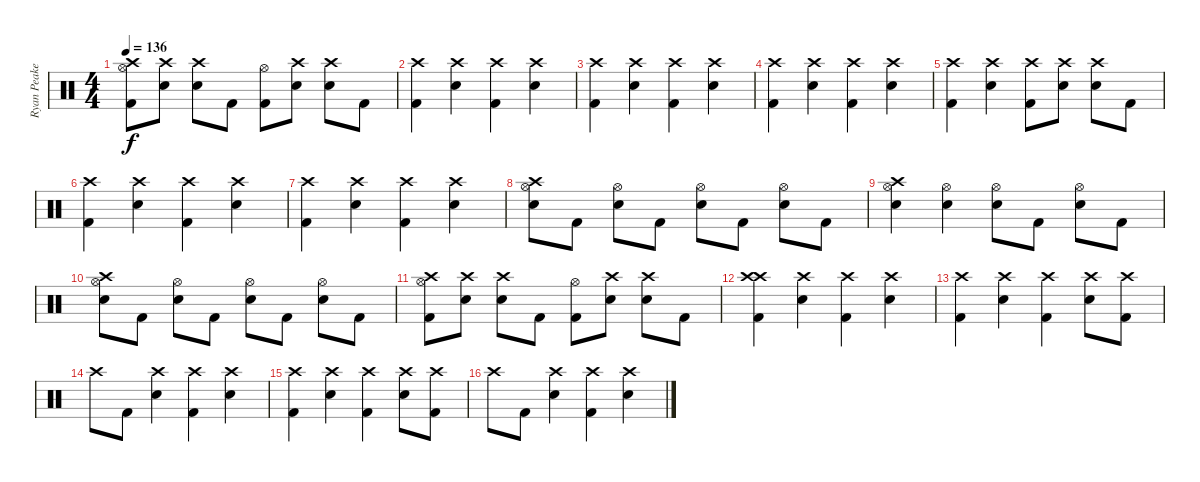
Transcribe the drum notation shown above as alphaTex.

\track ("Ryan Peake" "Ryan Peake") {instrument percussion}
\staff {score}
\articulation defaults
\ts (4 4)
\tempo 136
\clef neutral
\ks c
("Kick (hit) 2" "Hi-Hat (open)" "Crash high (hit)").8{dy f} ("Snare (hit) 2" "Crash high (hit)").8 ("Snare (hit) 2" "Crash high (hit)").8 "Kick (hit) 2".8 ("Kick (hit) 2" "Hi-Hat (open)").8 ("Snare (hit) 2" "Crash high (hit)").8 ("Snare (hit) 2" "Crash high (hit)").8 "Kick (hit) 2".8 |
("Kick (hit) 2" "Crash high (hit)").4 ("Snare (hit) 2" "Crash high (hit)").4 ("Kick (hit) 2" "Crash high (hit)").4 ("Snare (hit) 2" "Crash high (hit)").4 |
("Kick (hit) 2" "Crash high (hit)").4 ("Snare (hit) 2" "Crash high (hit)").4 ("Kick (hit) 2" "Crash high (hit)").4 ("Snare (hit) 2" "Crash high (hit)").4 |
("Kick (hit) 2" "Crash high (hit)").4 ("Snare (hit) 2" "Crash high (hit)").4 ("Kick (hit) 2" "Crash high (hit)").4 ("Snare (hit) 2" "Crash high (hit)").4 |
("Kick (hit) 2" "Crash high (hit)").4 ("Snare (hit) 2" "Crash high (hit)").4 ("Kick (hit) 2" "Crash high (hit)").8 ("Snare (hit) 2" "Crash high (hit)").8 ("Snare (hit) 2" "Crash high (hit)").8 "Kick (hit) 2".8 |
("Kick (hit) 2" "Crash high (hit)").4 ("Snare (hit) 2" "Crash high (hit)").4 ("Kick (hit) 2" "Crash high (hit)").4 ("Snare (hit) 2" "Crash high (hit)").4 |
("Kick (hit) 2" "Crash high (hit)").4 ("Snare (hit) 2" "Crash high (hit)").4 ("Kick (hit) 2" "Crash high (hit)").4 ("Snare (hit) 2" "Crash high (hit)").4 |
("Snare (hit) 2" "Hi-Hat (open)" "Crash high (hit)").8 "Kick (hit) 2".8 ("Snare (hit) 2" "Hi-Hat (open)").8 "Kick (hit) 2".8 ("Snare (hit) 2" "Hi-Hat (open)").8 "Kick (hit) 2".8 ("Snare (hit) 2" "Hi-Hat (open)").8 "Kick (hit) 2".8 |
("Snare (hit) 2" "Hi-Hat (open)" "Crash high (hit)").4 ("Snare (hit) 2" "Hi-Hat (open)").4 ("Snare (hit) 2" "Hi-Hat (open)").8 "Kick (hit) 2".8 ("Snare (hit) 2" "Hi-Hat (open)").8 "Kick (hit) 2".8 |
("Snare (hit) 2" "Hi-Hat (open)" "Crash high (hit)").8 "Kick (hit) 2".8 ("Snare (hit) 2" "Hi-Hat (open)").8 "Kick (hit) 2".8 ("Snare (hit) 2" "Hi-Hat (open)").8 "Kick (hit) 2".8 ("Snare (hit) 2" "Hi-Hat (open)").8 "Kick (hit) 2".8 |
("Kick (hit) 2" "Hi-Hat (open)" "Crash high (hit)").8 ("Snare (hit) 2" "Crash high (hit)").8 ("Snare (hit) 2" "Crash high (hit)").8 "Kick (hit) 2".8 ("Kick (hit) 2" "Hi-Hat (open)").8 ("Snare (hit) 2" "Crash high (hit)").8 ("Snare (hit) 2" "Crash high (hit)").8 "Kick (hit) 2".8 |
("Kick (hit) 2" "Crash high (hit)" "Crash high (hit)").4 ("Snare (hit) 2" "Crash high (hit)").4 ("Kick (hit) 2" "Crash high (hit)").4 ("Snare (hit) 2" "Crash high (hit)").4 |
("Kick (hit) 2" "Crash high (hit)").4 ("Snare (hit) 2" "Crash high (hit)").4 ("Kick (hit) 2" "Crash high (hit)").4 ("Snare (hit) 2" "Crash high (hit)").8 ("Kick (hit) 2" "Crash high (hit)").8 |
"Crash high (hit)".8 "Kick (hit) 2".8 ("Snare (hit) 2" "Crash high (hit)").4 ("Kick (hit) 2" "Crash high (hit)").4 ("Snare (hit) 2" "Crash high (hit)").4 |
("Kick (hit) 2" "Crash high (hit)").4 ("Snare (hit) 2" "Crash high (hit)").4 ("Kick (hit) 2" "Crash high (hit)").4 ("Snare (hit) 2" "Crash high (hit)").8 ("Kick (hit) 2" "Crash high (hit)").8 |
"Crash high (hit)".8 "Kick (hit) 2".8 ("Snare (hit) 2" "Crash high (hit)").4 ("Kick (hit) 2" "Crash high (hit)").4 ("Snare (hit) 2" "Crash high (hit)").4
